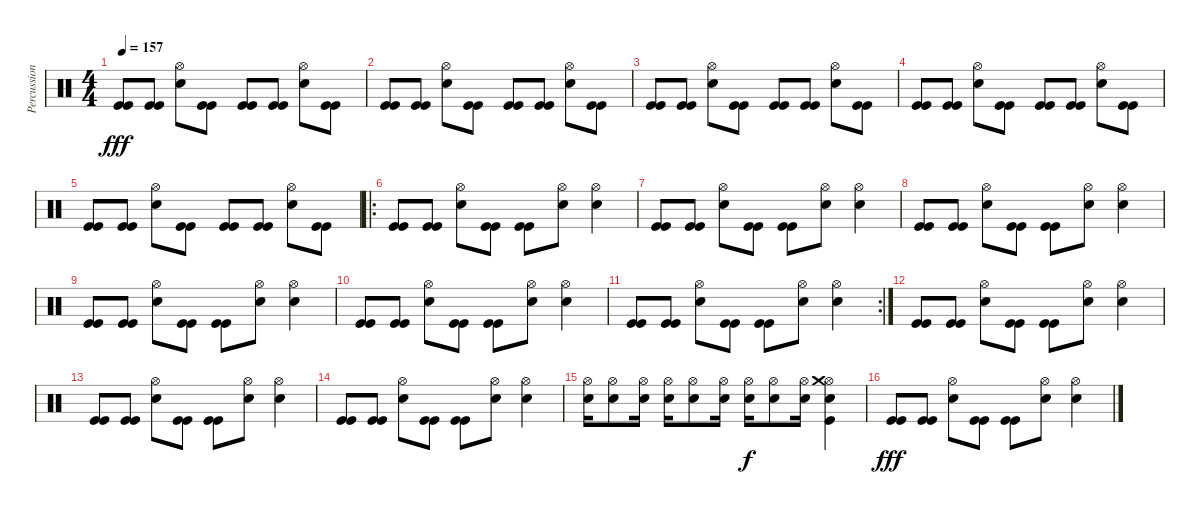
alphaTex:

\track ("Percussions" "Percussion") {instrument percussion}
\staff {score}
\articulation defaults
\ts (4 4)
\tempo 157
\clef neutral
\ks c
("Kick (hit)" "Kick (hit)").8{dy fff} ("Kick (hit)" "Kick (hit)").8 ("Snare (hit) 2" "Hi-Hat (open)").8 ("Kick (hit)" "Kick (hit)").8 ("Kick (hit)" "Kick (hit)").8 ("Kick (hit)" "Kick (hit)").8 ("Snare (hit) 2" "Hi-Hat (open)").8 ("Kick (hit)" "Kick (hit)").8 |
("Kick (hit)" "Kick (hit)").8 ("Kick (hit)" "Kick (hit)").8 ("Snare (hit) 2" "Hi-Hat (open)").8 ("Kick (hit)" "Kick (hit)").8 ("Kick (hit)" "Kick (hit)").8 ("Kick (hit)" "Kick (hit)").8 ("Snare (hit) 2" "Hi-Hat (open)").8 ("Kick (hit)" "Kick (hit)").8 |
("Kick (hit)" "Kick (hit)").8 ("Kick (hit)" "Kick (hit)").8 ("Snare (hit) 2" "Hi-Hat (open)").8 ("Kick (hit)" "Kick (hit)").8 ("Kick (hit)" "Kick (hit)").8 ("Kick (hit)" "Kick (hit)").8 ("Snare (hit) 2" "Hi-Hat (open)").8 ("Kick (hit)" "Kick (hit)").8 |
("Kick (hit)" "Kick (hit)").8 ("Kick (hit)" "Kick (hit)").8 ("Snare (hit) 2" "Hi-Hat (open)").8 ("Kick (hit)" "Kick (hit)").8 ("Kick (hit)" "Kick (hit)").8 ("Kick (hit)" "Kick (hit)").8 ("Snare (hit) 2" "Hi-Hat (open)").8 ("Kick (hit)" "Kick (hit)").8 |
("Kick (hit)" "Kick (hit)").8 ("Kick (hit)" "Kick (hit)").8 ("Snare (hit) 2" "Hi-Hat (open)").8 ("Kick (hit)" "Kick (hit)").8 ("Kick (hit)" "Kick (hit)").8 ("Kick (hit)" "Kick (hit)").8 ("Snare (hit) 2" "Hi-Hat (open)").8 ("Kick (hit)" "Kick (hit)").8 |
\ro
("Kick (hit)" "Kick (hit)").8 ("Kick (hit)" "Kick (hit)").8 ("Snare (hit) 2" "Hi-Hat (open)").8 ("Kick (hit)" "Kick (hit)").8 ("Kick (hit)" "Kick (hit)").8 ("Snare (hit) 2" "Hi-Hat (open)").8 ("Snare (hit) 2" "Hi-Hat (open)").4 |
("Kick (hit)" "Kick (hit)").8 ("Kick (hit)" "Kick (hit)").8 ("Snare (hit) 2" "Hi-Hat (open)").8 ("Kick (hit)" "Kick (hit)").8 ("Kick (hit)" "Kick (hit)").8 ("Snare (hit) 2" "Hi-Hat (open)").8 ("Snare (hit) 2" "Hi-Hat (open)").4 |
("Kick (hit)" "Kick (hit)").8 ("Kick (hit)" "Kick (hit)").8 ("Snare (hit) 2" "Hi-Hat (open)").8 ("Kick (hit)" "Kick (hit)").8 ("Kick (hit)" "Kick (hit)").8 ("Snare (hit) 2" "Hi-Hat (open)").8 ("Snare (hit) 2" "Hi-Hat (open)").4 |
("Kick (hit)" "Kick (hit)").8 ("Kick (hit)" "Kick (hit)").8 ("Snare (hit) 2" "Hi-Hat (open)").8 ("Kick (hit)" "Kick (hit)").8 ("Kick (hit)" "Kick (hit)").8 ("Snare (hit) 2" "Hi-Hat (open)").8 ("Snare (hit) 2" "Hi-Hat (open)").4 |
("Kick (hit)" "Kick (hit)").8 ("Kick (hit)" "Kick (hit)").8 ("Snare (hit) 2" "Hi-Hat (open)").8 ("Kick (hit)" "Kick (hit)").8 ("Kick (hit)" "Kick (hit)").8 ("Snare (hit) 2" "Hi-Hat (open)").8 ("Snare (hit) 2" "Hi-Hat (open)").4 |
\rc 2
("Kick (hit)" "Kick (hit)").8 ("Kick (hit)" "Kick (hit)").8 ("Snare (hit) 2" "Hi-Hat (open)").8 ("Kick (hit)" "Kick (hit)").8 ("Kick (hit)" "Kick (hit)").8 ("Snare (hit) 2" "Hi-Hat (open)").8 ("Snare (hit) 2" "Hi-Hat (open)").4 |
("Kick (hit)" "Kick (hit)").8 ("Kick (hit)" "Kick (hit)").8 ("Snare (hit) 2" "Hi-Hat (open)").8 ("Kick (hit)" "Kick (hit)").8 ("Kick (hit)" "Kick (hit)").8 ("Snare (hit) 2" "Hi-Hat (open)").8 ("Snare (hit) 2" "Hi-Hat (open)").4 |
("Kick (hit)" "Kick (hit)").8 ("Kick (hit)" "Kick (hit)").8 ("Snare (hit) 2" "Hi-Hat (open)").8 ("Kick (hit)" "Kick (hit)").8 ("Kick (hit)" "Kick (hit)").8 ("Snare (hit) 2" "Hi-Hat (open)").8 ("Snare (hit) 2" "Hi-Hat (open)").4 |
("Kick (hit)" "Kick (hit)").8 ("Kick (hit)" "Kick (hit)").8 ("Snare (hit) 2" "Hi-Hat (open)").8 ("Kick (hit)" "Kick (hit)").8 ("Kick (hit)" "Kick (hit)").8 ("Snare (hit) 2" "Hi-Hat (open)").8 ("Snare (hit) 2" "Hi-Hat (open)").4 |
("Snare (hit) 2" "Hi-Hat (open)").16 ("Snare (hit) 2" "Hi-Hat (open)").8 ("Snare (hit) 2" "Hi-Hat (open)").16 ("Snare (hit) 2" "Hi-Hat (open)").16 ("Snare (hit) 2" "Hi-Hat (open)").8 ("Snare (hit) 2" "Hi-Hat (open)").16 ("Snare (hit) 2" "Hi-Hat (open)").16{dy f} ("Snare (hit) 2" "Hi-Hat (open)").8 ("Snare (hit) 2" "Hi-Hat (open)").16 ("Snare (hit) 2" "Hi-Hat (open)" "Crash medium (hit)" "Kick (hit)").4 |
("Kick (hit)" "Kick (hit)").8{dy fff} ("Kick (hit)" "Kick (hit)").8 ("Snare (hit) 2" "Hi-Hat (open)").8 ("Kick (hit)" "Kick (hit)").8 ("Kick (hit)" "Kick (hit)").8 ("Snare (hit) 2" "Hi-Hat (open)").8 ("Snare (hit) 2" "Hi-Hat (open)").4
